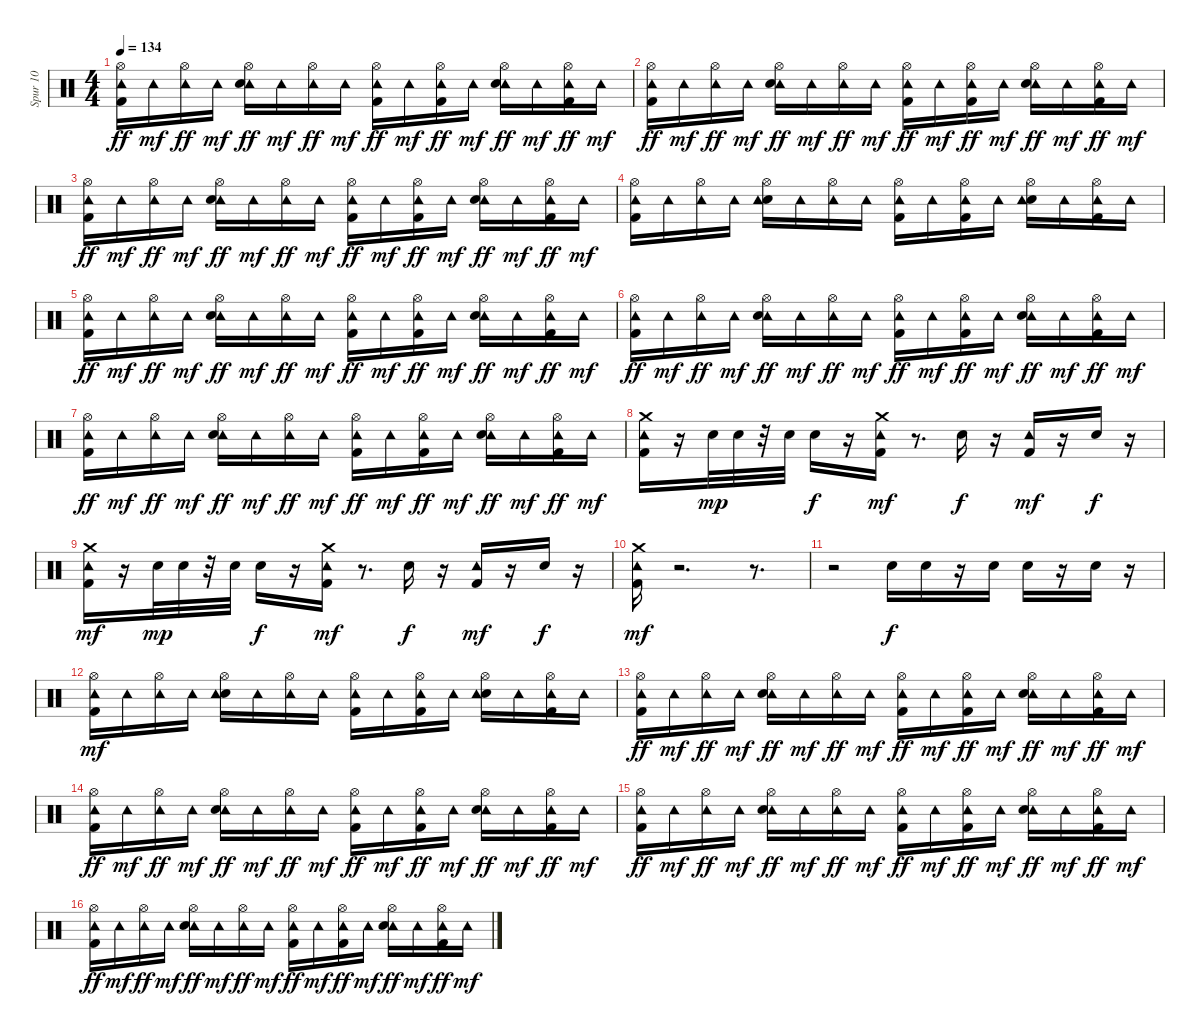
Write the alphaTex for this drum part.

\track ("Spur 10" "Spur 10") {instrument percussion}
\staff {score}
\articulation defaults
\ts (4 4)
\tempo 134
\clef neutral
\ks c
("Tambourine (hit)" "Kick (hit) 2" "Hi-Hat (open)").16{dy ff} "Tambourine (hit)".16{dy mf} ("Tambourine (hit)" "Hi-Hat (open)").16{dy ff} "Tambourine (hit)".16{dy mf} ("Tambourine (hit)" "Snare (hit) 2" "Hi-Hat (open)").16{dy ff} "Tambourine (hit)".16{dy mf} ("Tambourine (hit)" "Hi-Hat (open)").16{dy ff} "Tambourine (hit)".16{dy mf} ("Tambourine (hit)" "Kick (hit) 2" "Hi-Hat (open)").16{dy ff} "Tambourine (hit)".16{dy mf} ("Tambourine (hit)" "Kick (hit) 2" "Hi-Hat (open)").16{dy ff} "Tambourine (hit)".16{dy mf} ("Tambourine (hit)" "Snare (hit) 2" "Hi-Hat (open)").16{dy ff} "Tambourine (hit)".16{dy mf} ("Tambourine (hit)" "Kick (hit) 2" "Hi-Hat (open)").16{dy ff} "Tambourine (hit)".16{dy mf} |
("Tambourine (hit)" "Kick (hit) 2" "Hi-Hat (open)").16{dy ff} "Tambourine (hit)".16{dy mf} ("Tambourine (hit)" "Hi-Hat (open)").16{dy ff} "Tambourine (hit)".16{dy mf} ("Tambourine (hit)" "Snare (hit) 2" "Hi-Hat (open)").16{dy ff} "Tambourine (hit)".16{dy mf} ("Tambourine (hit)" "Hi-Hat (open)").16{dy ff} "Tambourine (hit)".16{dy mf} ("Tambourine (hit)" "Kick (hit) 2" "Hi-Hat (open)").16{dy ff} "Tambourine (hit)".16{dy mf} ("Tambourine (hit)" "Kick (hit) 2" "Hi-Hat (open)").16{dy ff} "Tambourine (hit)".16{dy mf} ("Tambourine (hit)" "Snare (hit) 2" "Hi-Hat (open)").16{dy ff} "Tambourine (hit)".16{dy mf} ("Tambourine (hit)" "Kick (hit) 2" "Hi-Hat (open)").16{dy ff} "Tambourine (hit)".16{dy mf} |
("Tambourine (hit)" "Kick (hit) 2" "Hi-Hat (open)").16{dy ff} "Tambourine (hit)".16{dy mf} ("Tambourine (hit)" "Hi-Hat (open)").16{dy ff} "Tambourine (hit)".16{dy mf} ("Tambourine (hit)" "Snare (hit) 2" "Hi-Hat (open)").16{dy ff} "Tambourine (hit)".16{dy mf} ("Tambourine (hit)" "Hi-Hat (open)").16{dy ff} "Tambourine (hit)".16{dy mf} ("Tambourine (hit)" "Kick (hit) 2" "Hi-Hat (open)").16{dy ff} "Tambourine (hit)".16{dy mf} ("Tambourine (hit)" "Kick (hit) 2" "Hi-Hat (open)").16{dy ff} "Tambourine (hit)".16{dy mf} ("Tambourine (hit)" "Snare (hit) 2" "Hi-Hat (open)").16{dy ff} "Tambourine (hit)".16{dy mf} ("Tambourine (hit)" "Kick (hit) 2" "Hi-Hat (open)").16{dy ff} "Tambourine (hit)".16{dy mf} |
("Hi-Hat (open)" "Kick (hit) 2" "Tambourine (hit)").16 "Tambourine (hit)".16 ("Hi-Hat (open)" "Tambourine (hit)").16 "Tambourine (hit)".16 ("Hi-Hat (open)" "Snare (hit) 2" "Tambourine (hit)").16 "Tambourine (hit)".16 ("Hi-Hat (open)" "Tambourine (hit)").16 "Tambourine (hit)".16 ("Hi-Hat (open)" "Kick (hit) 2" "Tambourine (hit)").16 "Tambourine (hit)".16 ("Hi-Hat (open)" "Kick (hit) 2" "Tambourine (hit)").16 "Tambourine (hit)".16 ("Hi-Hat (open)" "Snare (hit) 2" "Tambourine (hit)").16 "Tambourine (hit)".16 ("Hi-Hat (open)" "Kick (hit) 2" "Tambourine (hit)").16 "Tambourine (hit)".16 |
("Tambourine (hit)" "Kick (hit) 2" "Hi-Hat (open)").16{dy ff} "Tambourine (hit)".16{dy mf} ("Tambourine (hit)" "Hi-Hat (open)").16{dy ff} "Tambourine (hit)".16{dy mf} ("Tambourine (hit)" "Snare (hit) 2" "Hi-Hat (open)").16{dy ff} "Tambourine (hit)".16{dy mf} ("Tambourine (hit)" "Hi-Hat (open)").16{dy ff} "Tambourine (hit)".16{dy mf} ("Tambourine (hit)" "Kick (hit) 2" "Hi-Hat (open)").16{dy ff} "Tambourine (hit)".16{dy mf} ("Tambourine (hit)" "Kick (hit) 2" "Hi-Hat (open)").16{dy ff} "Tambourine (hit)".16{dy mf} ("Tambourine (hit)" "Snare (hit) 2" "Hi-Hat (open)").16{dy ff} "Tambourine (hit)".16{dy mf} ("Tambourine (hit)" "Kick (hit) 2" "Hi-Hat (open)").16{dy ff} "Tambourine (hit)".16{dy mf} |
("Tambourine (hit)" "Kick (hit) 2" "Hi-Hat (open)").16{dy ff} "Tambourine (hit)".16{dy mf} ("Tambourine (hit)" "Hi-Hat (open)").16{dy ff} "Tambourine (hit)".16{dy mf} ("Tambourine (hit)" "Snare (hit) 2" "Hi-Hat (open)").16{dy ff} "Tambourine (hit)".16{dy mf} ("Tambourine (hit)" "Hi-Hat (open)").16{dy ff} "Tambourine (hit)".16{dy mf} ("Tambourine (hit)" "Kick (hit) 2" "Hi-Hat (open)").16{dy ff} "Tambourine (hit)".16{dy mf} ("Tambourine (hit)" "Kick (hit) 2" "Hi-Hat (open)").16{dy ff} "Tambourine (hit)".16{dy mf} ("Tambourine (hit)" "Snare (hit) 2" "Hi-Hat (open)").16{dy ff} "Tambourine (hit)".16{dy mf} ("Tambourine (hit)" "Kick (hit) 2" "Hi-Hat (open)").16{dy ff} "Tambourine (hit)".16{dy mf} |
("Tambourine (hit)" "Kick (hit) 2" "Hi-Hat (open)").16{dy ff} "Tambourine (hit)".16{dy mf} ("Tambourine (hit)" "Hi-Hat (open)").16{dy ff} "Tambourine (hit)".16{dy mf} ("Tambourine (hit)" "Snare (hit) 2" "Hi-Hat (open)").16{dy ff} "Tambourine (hit)".16{dy mf} ("Tambourine (hit)" "Hi-Hat (open)").16{dy ff} "Tambourine (hit)".16{dy mf} ("Tambourine (hit)" "Kick (hit) 2" "Hi-Hat (open)").16{dy ff} "Tambourine (hit)".16{dy mf} ("Tambourine (hit)" "Kick (hit) 2" "Hi-Hat (open)").16{dy ff} "Tambourine (hit)".16{dy mf} ("Tambourine (hit)" "Snare (hit) 2" "Hi-Hat (open)").16{dy ff} "Tambourine (hit)".16{dy mf} ("Tambourine (hit)" "Kick (hit) 2" "Hi-Hat (open)").16{dy ff} "Tambourine (hit)".16{dy mf} |
("Tambourine (hit)" "Kick (hit) 2" "Crash medium (hit)").16 r.16 "Snare (hit) 2".32{dy mp} "Snare (hit) 2".32 r.32 "Snare (hit) 2".32 "Snare (hit) 2".16{dy f} r.16 ("Tambourine (hit)" "Kick (hit) 2" "Crash medium (hit)").16{dy mf} r.8{d} "Snare (hit) 2".16{dy f} r.16 ("Tambourine (hit)" "Kick (hit) 2").16{dy mf} r.16 "Snare (hit) 2".16{dy f} r.16 |
("Tambourine (hit)" "Crash medium (hit)" "Kick (hit) 2").16{dy mf} r.16 "Snare (hit) 2".32{dy mp} "Snare (hit) 2".32 r.32 "Snare (hit) 2".32 "Snare (hit) 2".16{dy f} r.16 ("Tambourine (hit)" "Crash medium (hit)" "Kick (hit) 2").16{dy mf} r.8{d} "Snare (hit) 2".16{dy f} r.16 ("Tambourine (hit)" "Kick (hit) 2").16{dy mf} r.16 "Snare (hit) 2".16{dy f} r.16 |
("Tambourine (hit)" "Kick (hit) 2" "Crash medium (hit)").16{dy mf} r.2{d} r.8{d} |
r.2 "Snare (hit) 2".16{dy f} "Snare (hit) 2".16 r.16 "Snare (hit) 2".16 "Snare (hit) 2".16 r.16 "Snare (hit) 2".16 r.16 |
("Hi-Hat (open)" "Kick (hit) 2" "Tambourine (hit)").16{dy mf} "Tambourine (hit)".16 ("Hi-Hat (open)" "Tambourine (hit)").16 "Tambourine (hit)".16 ("Hi-Hat (open)" "Snare (hit) 2" "Tambourine (hit)").16 "Tambourine (hit)".16 ("Hi-Hat (open)" "Tambourine (hit)").16 "Tambourine (hit)".16 ("Hi-Hat (open)" "Kick (hit) 2" "Tambourine (hit)").16 "Tambourine (hit)".16 ("Hi-Hat (open)" "Kick (hit) 2" "Tambourine (hit)").16 "Tambourine (hit)".16 ("Hi-Hat (open)" "Snare (hit) 2" "Tambourine (hit)").16 "Tambourine (hit)".16 ("Hi-Hat (open)" "Kick (hit) 2" "Tambourine (hit)").16 "Tambourine (hit)".16 |
("Tambourine (hit)" "Kick (hit) 2" "Hi-Hat (open)").16{dy ff} "Tambourine (hit)".16{dy mf} ("Tambourine (hit)" "Hi-Hat (open)").16{dy ff} "Tambourine (hit)".16{dy mf} ("Tambourine (hit)" "Snare (hit) 2" "Hi-Hat (open)").16{dy ff} "Tambourine (hit)".16{dy mf} ("Tambourine (hit)" "Hi-Hat (open)").16{dy ff} "Tambourine (hit)".16{dy mf} ("Tambourine (hit)" "Kick (hit) 2" "Hi-Hat (open)").16{dy ff} "Tambourine (hit)".16{dy mf} ("Tambourine (hit)" "Kick (hit) 2" "Hi-Hat (open)").16{dy ff} "Tambourine (hit)".16{dy mf} ("Tambourine (hit)" "Snare (hit) 2" "Hi-Hat (open)").16{dy ff} "Tambourine (hit)".16{dy mf} ("Tambourine (hit)" "Kick (hit) 2" "Hi-Hat (open)").16{dy ff} "Tambourine (hit)".16{dy mf} |
("Tambourine (hit)" "Kick (hit) 2" "Hi-Hat (open)").16{dy ff} "Tambourine (hit)".16{dy mf} ("Tambourine (hit)" "Hi-Hat (open)").16{dy ff} "Tambourine (hit)".16{dy mf} ("Tambourine (hit)" "Snare (hit) 2" "Hi-Hat (open)").16{dy ff} "Tambourine (hit)".16{dy mf} ("Tambourine (hit)" "Hi-Hat (open)").16{dy ff} "Tambourine (hit)".16{dy mf} ("Tambourine (hit)" "Kick (hit) 2" "Hi-Hat (open)").16{dy ff} "Tambourine (hit)".16{dy mf} ("Tambourine (hit)" "Kick (hit) 2" "Hi-Hat (open)").16{dy ff} "Tambourine (hit)".16{dy mf} ("Tambourine (hit)" "Snare (hit) 2" "Hi-Hat (open)").16{dy ff} "Tambourine (hit)".16{dy mf} ("Tambourine (hit)" "Kick (hit) 2" "Hi-Hat (open)").16{dy ff} "Tambourine (hit)".16{dy mf} |
("Tambourine (hit)" "Kick (hit) 2" "Hi-Hat (open)").16{dy ff} "Tambourine (hit)".16{dy mf} ("Tambourine (hit)" "Hi-Hat (open)").16{dy ff} "Tambourine (hit)".16{dy mf} ("Tambourine (hit)" "Snare (hit) 2" "Hi-Hat (open)").16{dy ff} "Tambourine (hit)".16{dy mf} ("Tambourine (hit)" "Hi-Hat (open)").16{dy ff} "Tambourine (hit)".16{dy mf} ("Tambourine (hit)" "Kick (hit) 2" "Hi-Hat (open)").16{dy ff} "Tambourine (hit)".16{dy mf} ("Tambourine (hit)" "Kick (hit) 2" "Hi-Hat (open)").16{dy ff} "Tambourine (hit)".16{dy mf} ("Tambourine (hit)" "Snare (hit) 2" "Hi-Hat (open)").16{dy ff} "Tambourine (hit)".16{dy mf} ("Tambourine (hit)" "Kick (hit) 2" "Hi-Hat (open)").16{dy ff} "Tambourine (hit)".16{dy mf} |
("Tambourine (hit)" "Kick (hit) 2" "Hi-Hat (open)").16{dy ff} "Tambourine (hit)".16{dy mf} ("Tambourine (hit)" "Hi-Hat (open)").16{dy ff} "Tambourine (hit)".16{dy mf} ("Tambourine (hit)" "Snare (hit) 2" "Hi-Hat (open)").16{dy ff} "Tambourine (hit)".16{dy mf} ("Tambourine (hit)" "Hi-Hat (open)").16{dy ff} "Tambourine (hit)".16{dy mf} ("Tambourine (hit)" "Kick (hit) 2" "Hi-Hat (open)").16{dy ff} "Tambourine (hit)".16{dy mf} ("Tambourine (hit)" "Kick (hit) 2" "Hi-Hat (open)").16{dy ff} "Tambourine (hit)".16{dy mf} ("Tambourine (hit)" "Snare (hit) 2" "Hi-Hat (open)").16{dy ff} "Tambourine (hit)".16{dy mf} ("Tambourine (hit)" "Kick (hit) 2" "Hi-Hat (open)").16{dy ff} "Tambourine (hit)".16{dy mf}
